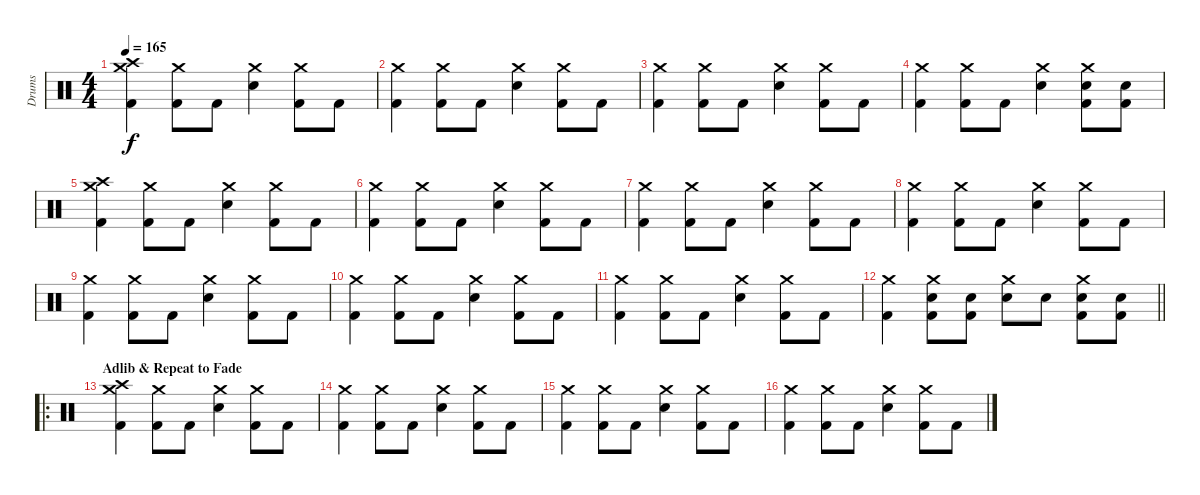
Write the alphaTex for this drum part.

\track ("Drums" "Drums") {instrument percussion}
\staff {score}
\articulation defaults
\ts (4 4)
\tempo 165
\clef neutral
\ks c
("Crash high (hit)" "Crash medium (hit)" "Kick (hit) 2").4{dy f} ("Crash medium (hit)" "Kick (hit) 2").8 "Kick (hit) 2".8 ("Crash medium (hit)" "Snare (hit) 2").4 ("Crash medium (hit)" "Kick (hit) 2").8 "Kick (hit) 2".8 |
("Crash medium (hit)" "Kick (hit) 2").4 ("Crash medium (hit)" "Kick (hit) 2").8 "Kick (hit) 2".8 ("Crash medium (hit)" "Snare (hit) 2").4 ("Crash medium (hit)" "Kick (hit) 2").8 "Kick (hit) 2".8 |
("Crash medium (hit)" "Kick (hit) 2").4 ("Crash medium (hit)" "Kick (hit) 2").8 "Kick (hit) 2".8 ("Crash medium (hit)" "Snare (hit) 2").4 ("Crash medium (hit)" "Kick (hit) 2").8 "Kick (hit) 2".8 |
("Crash medium (hit)" "Kick (hit) 2").4 ("Crash medium (hit)" "Kick (hit) 2").8 "Kick (hit) 2".8 ("Crash medium (hit)" "Snare (hit) 2").4 ("Crash medium (hit)" "Snare (hit) 2" "Kick (hit) 2").8 ("Snare (hit) 2" "Kick (hit) 2").8 |
("Crash high (hit)" "Crash medium (hit)" "Kick (hit) 2").4 ("Crash medium (hit)" "Kick (hit) 2").8 "Kick (hit) 2".8 ("Crash medium (hit)" "Snare (hit) 2").4 ("Crash medium (hit)" "Kick (hit) 2").8 "Kick (hit) 2".8 |
("Crash medium (hit)" "Kick (hit) 2").4 ("Crash medium (hit)" "Kick (hit) 2").8 "Kick (hit) 2".8 ("Crash medium (hit)" "Snare (hit) 2").4 ("Crash medium (hit)" "Kick (hit) 2").8 "Kick (hit) 2".8 |
("Crash medium (hit)" "Kick (hit) 2").4 ("Crash medium (hit)" "Kick (hit) 2").8 "Kick (hit) 2".8 ("Crash medium (hit)" "Snare (hit) 2").4 ("Crash medium (hit)" "Kick (hit) 2").8 "Kick (hit) 2".8 |
("Crash medium (hit)" "Kick (hit) 2").4 ("Crash medium (hit)" "Kick (hit) 2").8 "Kick (hit) 2".8 ("Crash medium (hit)" "Snare (hit) 2").4 ("Crash medium (hit)" "Kick (hit) 2").8 "Kick (hit) 2".8 |
("Crash medium (hit)" "Kick (hit) 2").4 ("Crash medium (hit)" "Kick (hit) 2").8 "Kick (hit) 2".8 ("Crash medium (hit)" "Snare (hit) 2").4 ("Crash medium (hit)" "Kick (hit) 2").8 "Kick (hit) 2".8 |
("Crash medium (hit)" "Kick (hit) 2").4 ("Crash medium (hit)" "Kick (hit) 2").8 "Kick (hit) 2".8 ("Crash medium (hit)" "Snare (hit) 2").4 ("Crash medium (hit)" "Kick (hit) 2").8 "Kick (hit) 2".8 |
("Crash medium (hit)" "Kick (hit) 2").4 ("Crash medium (hit)" "Kick (hit) 2").8 "Kick (hit) 2".8 ("Crash medium (hit)" "Snare (hit) 2").4 ("Crash medium (hit)" "Kick (hit) 2").8 "Kick (hit) 2".8 |
\barLineRight lightlight
("Crash medium (hit)" "Kick (hit) 2").4 ("Crash medium (hit)" "Snare (hit) 2" "Kick (hit) 2").8 ("Snare (hit) 2" "Kick (hit) 2").8 ("Crash medium (hit)" "Snare (hit) 2").8 "Snare (hit) 2".8 ("Crash medium (hit)" "Snare (hit) 2" "Kick (hit) 2").8 ("Snare (hit) 2" "Kick (hit) 2").8 |
\ro
\section ("" "Adlib & Repeat to Fade")
("Crash high (hit)" "Crash medium (hit)" "Kick (hit) 2").4 ("Crash medium (hit)" "Kick (hit) 2").8 "Kick (hit) 2".8 ("Crash medium (hit)" "Snare (hit) 2").4 ("Crash medium (hit)" "Kick (hit) 2").8 "Kick (hit) 2".8 |
("Crash medium (hit)" "Kick (hit) 2").4 ("Crash medium (hit)" "Kick (hit) 2").8 "Kick (hit) 2".8 ("Crash medium (hit)" "Snare (hit) 2").4 ("Crash medium (hit)" "Kick (hit) 2").8 "Kick (hit) 2".8 |
("Crash medium (hit)" "Kick (hit) 2").4 ("Crash medium (hit)" "Kick (hit) 2").8 "Kick (hit) 2".8 ("Crash medium (hit)" "Snare (hit) 2").4 ("Crash medium (hit)" "Kick (hit) 2").8 "Kick (hit) 2".8 |
("Crash medium (hit)" "Kick (hit) 2").4 ("Crash medium (hit)" "Kick (hit) 2").8 "Kick (hit) 2".8 ("Crash medium (hit)" "Snare (hit) 2").4 ("Crash medium (hit)" "Kick (hit) 2").8 "Kick (hit) 2".8
